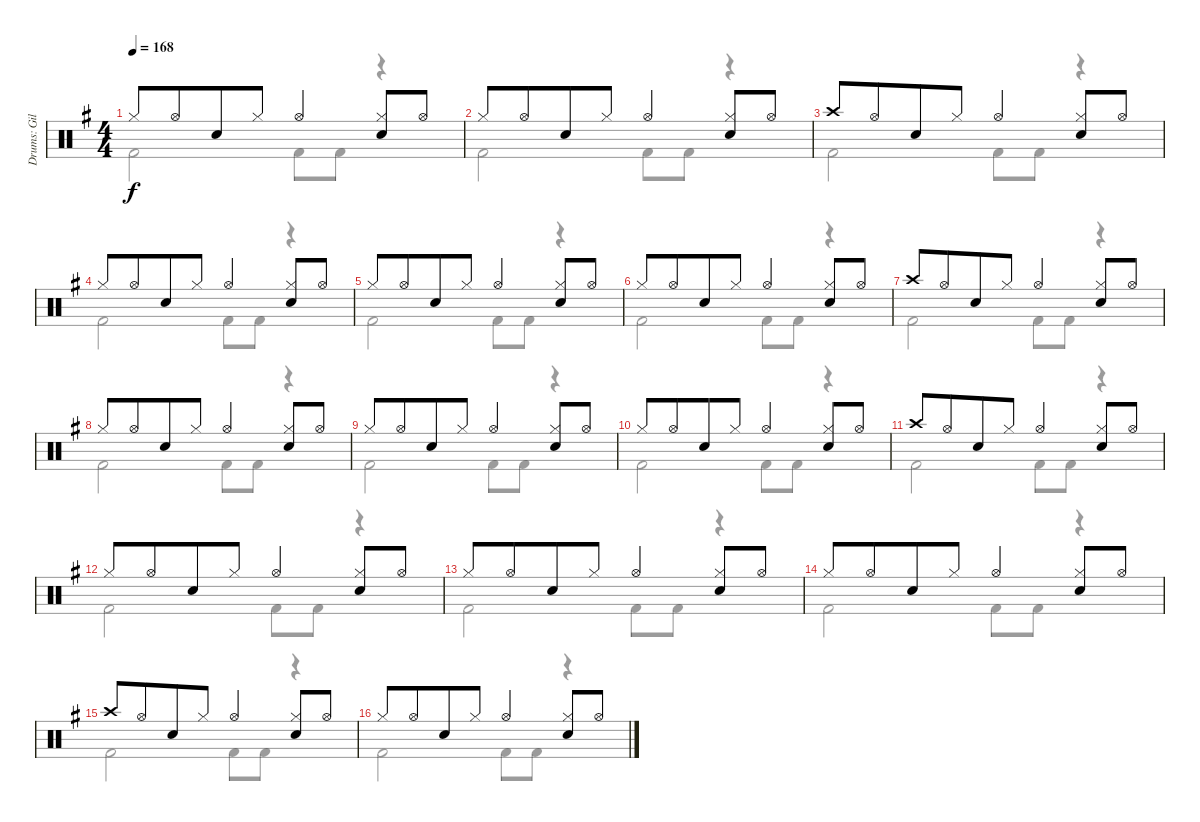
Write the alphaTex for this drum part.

\track ("Drums: Gil" "Drums: Gil") {instrument percussion}
\staff {score}
\articulation defaults
\voice
\ts (4 4)
\tempo 168
\clef neutral
\ks g "Hi-Hat (closed)".8{dy f} "Hi-Hat (open)".8{beam merge} "Snare (hit) 2".8 "Hi-Hat (closed)".8 "Hi-Hat (open)".4{beam merge}
("Hi-Hat (closed)" "Snare (hit) 2").8 "Hi-Hat (open)".8 |
"Hi-Hat (closed)".8 "Hi-Hat (open)".8{beam merge} "Snare (hit) 2".8 "Hi-Hat (closed)".8 "Hi-Hat (open)".4{beam merge} ("Hi-Hat (closed)" "Snare (hit) 2").8 "Hi-Hat (open)".8 |
"Crash high (hit)".8 "Hi-Hat (open)".8{beam merge} "Snare (hit) 2".8 "Hi-Hat (closed)".8 "Hi-Hat (open)".4{beam merge} ("Hi-Hat (closed)" "Snare (hit) 2").8 "Hi-Hat (open)".8 |
"Hi-Hat (closed)".8 "Hi-Hat (open)".8{beam merge} "Snare (hit) 2".8 "Hi-Hat (closed)".8 "Hi-Hat (open)".4{beam merge} ("Hi-Hat (closed)" "Snare (hit) 2").8 "Hi-Hat (open)".8 |
"Hi-Hat (closed)".8 "Hi-Hat (open)".8{beam merge} "Snare (hit) 2".8 "Hi-Hat (closed)".8 "Hi-Hat (open)".4{beam merge} ("Hi-Hat (closed)" "Snare (hit) 2").8 "Hi-Hat (open)".8 |
"Hi-Hat (closed)".8 "Hi-Hat (open)".8{beam merge} "Snare (hit) 2".8 "Hi-Hat (closed)".8 "Hi-Hat (open)".4{beam merge} ("Hi-Hat (closed)" "Snare (hit) 2").8 "Hi-Hat (open)".8 |
"Crash high (hit)".8 "Hi-Hat (open)".8{beam merge} "Snare (hit) 2".8 "Hi-Hat (closed)".8 "Hi-Hat (open)".4{beam merge} ("Hi-Hat (closed)" "Snare (hit) 2").8 "Hi-Hat (open)".8 |
"Hi-Hat (closed)".8 "Hi-Hat (open)".8{beam merge} "Snare (hit) 2".8 "Hi-Hat (closed)".8 "Hi-Hat (open)".4{beam merge} ("Hi-Hat (closed)" "Snare (hit) 2").8 "Hi-Hat (open)".8 |
"Hi-Hat (closed)".8 "Hi-Hat (open)".8{beam merge} "Snare (hit) 2".8 "Hi-Hat (closed)".8 "Hi-Hat (open)".4{beam merge} ("Hi-Hat (closed)" "Snare (hit) 2").8 "Hi-Hat (open)".8 |
"Hi-Hat (closed)".8 "Hi-Hat (open)".8{beam merge} "Snare (hit) 2".8 "Hi-Hat (closed)".8 "Hi-Hat (open)".4{beam merge} ("Hi-Hat (closed)" "Snare (hit) 2").8 "Hi-Hat (open)".8 |
"Crash high (hit)".8 "Hi-Hat (open)".8{beam merge} "Snare (hit) 2".8 "Hi-Hat (closed)".8 "Hi-Hat (open)".4{beam merge} ("Hi-Hat (closed)" "Snare (hit) 2").8 "Hi-Hat (open)".8 |
"Hi-Hat (closed)".8 "Hi-Hat (open)".8{beam merge} "Snare (hit) 2".8 "Hi-Hat (closed)".8 "Hi-Hat (open)".4{beam merge} ("Hi-Hat (closed)" "Snare (hit) 2").8 "Hi-Hat (open)".8 |
"Hi-Hat (closed)".8 "Hi-Hat (open)".8{beam merge} "Snare (hit) 2".8 "Hi-Hat (closed)".8 "Hi-Hat (open)".4{beam merge} ("Hi-Hat (closed)" "Snare (hit) 2").8 "Hi-Hat (open)".8 |
"Hi-Hat (closed)".8 "Hi-Hat (open)".8{beam merge} "Snare (hit) 2".8 "Hi-Hat (closed)".8 "Hi-Hat (open)".4{beam merge} ("Hi-Hat (closed)" "Snare (hit) 2").8 "Hi-Hat (open)".8 |
"Crash high (hit)".8 "Hi-Hat (open)".8{beam merge} "Snare (hit) 2".8 "Hi-Hat (closed)".8 "Hi-Hat (open)".4{beam merge} ("Hi-Hat (closed)" "Snare (hit) 2").8 "Hi-Hat (open)".8 |
"Hi-Hat (closed)".8 "Hi-Hat (open)".8{beam merge} "Snare (hit) 2".8 "Hi-Hat (closed)".8 "Hi-Hat (open)".4{beam merge} ("Hi-Hat (closed)" "Snare (hit) 2").8 "Hi-Hat (open)".8
\voice
\clef neutral
\ottava regular
\simile none
\ks g "Kick (hit) 2".2{dy f} "Kick (hit) 2".8 "Kick (hit) 2".8
r.4 |
"Kick (hit) 2".2 "Kick (hit) 2".8 "Kick (hit) 2".8 r.4 |
"Kick (hit) 2".2 "Kick (hit) 2".8 "Kick (hit) 2".8 r.4 |
"Kick (hit) 2".2 "Kick (hit) 2".8 "Kick (hit) 2".8 r.4 |
"Kick (hit) 2".2 "Kick (hit) 2".8 "Kick (hit) 2".8 r.4 |
"Kick (hit) 2".2 "Kick (hit) 2".8 "Kick (hit) 2".8 r.4 |
"Kick (hit) 2".2 "Kick (hit) 2".8 "Kick (hit) 2".8 r.4 |
"Kick (hit) 2".2 "Kick (hit) 2".8 "Kick (hit) 2".8 r.4 |
"Kick (hit) 2".2 "Kick (hit) 2".8 "Kick (hit) 2".8 r.4 |
"Kick (hit) 2".2 "Kick (hit) 2".8 "Kick (hit) 2".8 r.4 |
"Kick (hit) 2".2 "Kick (hit) 2".8 "Kick (hit) 2".8 r.4 |
"Kick (hit) 2".2 "Kick (hit) 2".8 "Kick (hit) 2".8 r.4 |
"Kick (hit) 2".2 "Kick (hit) 2".8 "Kick (hit) 2".8 r.4 |
"Kick (hit) 2".2 "Kick (hit) 2".8 "Kick (hit) 2".8 r.4 |
"Kick (hit) 2".2 "Kick (hit) 2".8 "Kick (hit) 2".8 r.4 |
"Kick (hit) 2".2 "Kick (hit) 2".8 "Kick (hit) 2".8 r.4
